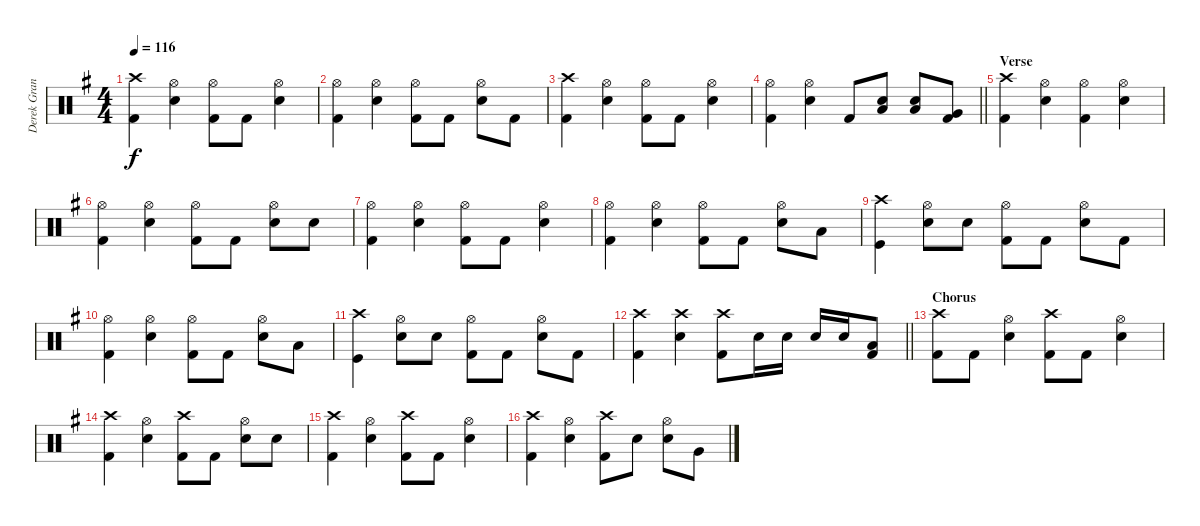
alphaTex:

\track ("Derek Grant - Drums" "Derek Gran") {instrument percussion}
\staff {score}
\articulation defaults
\ts (4 4)
\tempo 116
\clef neutral
\ks g
("Crash high (hit)" "Kick (hit) 2").4{dy f} ("Hi-Hat (open)" "Snare (hit) 2").4 ("Hi-Hat (open)" "Kick (hit) 2").8 "Kick (hit) 2".8 ("Hi-Hat (open)" "Snare (hit) 2").4 |
("Hi-Hat (open)" "Kick (hit) 2").4 ("Hi-Hat (open)" "Snare (hit) 2").4 ("Hi-Hat (open)" "Kick (hit) 2").8 "Kick (hit) 2".8 ("Hi-Hat (open)" "Snare (hit) 2").8 "Kick (hit) 2".8 |
("Crash high (hit)" "Kick (hit) 2").4 ("Hi-Hat (open)" "Snare (hit) 2").4 ("Hi-Hat (open)" "Kick (hit) 2").8 "Kick (hit) 2".8 ("Hi-Hat (open)" "Snare (hit) 2").4 |
\barLineRight lightlight
("Hi-Hat (open)" "Kick (hit) 2").4 ("Hi-Hat (open)" "Snare (hit) 2").4 "Kick (hit) 2".8 ("Low Tom (hit)" "Snare (hit) 2").8 ("Low Tom (hit)" "Snare (hit) 2").8 ("Kick (hit) 2" "Very Low Tom (hit)").8 |
\section ("" "Verse")
("Crash high (hit)" "Kick (hit) 2").4 ("Hi-Hat (open)" "Snare (hit) 2").4 ("Hi-Hat (open)" "Kick (hit) 2").4 ("Hi-Hat (open)" "Snare (hit) 2").4 |
("Hi-Hat (open)" "Kick (hit) 2").4 ("Hi-Hat (open)" "Snare (hit) 2").4 ("Hi-Hat (open)" "Kick (hit) 2").8 "Kick (hit) 2".8 ("Hi-Hat (open)" "Snare (hit) 2").8 "Snare (hit) 2".8 |
("Hi-Hat (open)" "Kick (hit) 2").4 ("Hi-Hat (open)" "Snare (hit) 2").4 ("Hi-Hat (open)" "Kick (hit) 2").8 "Kick (hit) 2".8 ("Hi-Hat (open)" "Snare (hit) 2").4 |
("Hi-Hat (open)" "Kick (hit) 2").4 ("Hi-Hat (open)" "Snare (hit) 2").4 ("Hi-Hat (open)" "Kick (hit) 2").8 "Kick (hit) 2".8 ("Hi-Hat (open)" "Snare (hit) 2").8 "Low Tom (hit)".8 |
("Kick (hit)" "Crash high (hit)").4 ("Snare (hit) 2" "Hi-Hat (open)").8 "Snare (hit) 2".8 ("Hi-Hat (open)" "Kick (hit) 2").8 "Kick (hit) 2".8 ("Snare (hit) 2" "Hi-Hat (open)").8 "Kick (hit) 2".8 |
("Kick (hit) 2" "Hi-Hat (open)").4 ("Hi-Hat (open)" "Snare (hit) 2").4 ("Kick (hit) 2" "Hi-Hat (open)").8 "Kick (hit) 2".8 ("Snare (hit) 2" "Hi-Hat (open)").8 "Low Tom (hit)".8 |
("Kick (hit)" "Crash high (hit)").4 ("Snare (hit) 2" "Hi-Hat (open)").8 "Snare (hit) 2".8 ("Hi-Hat (open)" "Kick (hit) 2").8 "Kick (hit) 2".8 ("Snare (hit) 2" "Hi-Hat (open)").8 "Kick (hit) 2".8 |
\barLineRight lightlight
("Kick (hit) 2" "Crash high (hit)").4 ("Crash high (hit)" "Snare (hit) 2").4 ("Kick (hit) 2" "Crash high (hit)").8 "Snare (hit) 2".16 "Snare (hit) 2".16 "Snare (hit) 2".16 "Snare (hit) 2".16 ("Low Floor Tom (hit)" "Kick (hit) 2").8 |
\section ("" "Chorus")
("Kick (hit) 2" "Crash high (hit)").8 "Kick (hit) 2".8 ("Snare (hit) 2" "Hi-Hat (open)").4 ("Kick (hit) 2" "Crash high (hit)").8 "Kick (hit) 2".8 ("Snare (hit) 2" "Hi-Hat (open)").4 |
("Kick (hit) 2" "Crash high (hit)").4 ("Snare (hit) 2" "Hi-Hat (open)").4 ("Kick (hit) 2" "Crash high (hit)").8 "Kick (hit) 2".8 ("Snare (hit) 2" "Hi-Hat (open)").8 "Snare (hit) 2".8 |
("Kick (hit) 2" "Crash high (hit)").4 ("Snare (hit) 2" "Hi-Hat (open)").4 ("Kick (hit) 2" "Crash high (hit)").8 "Kick (hit) 2".8 ("Snare (hit) 2" "Hi-Hat (open)").4 |
("Kick (hit) 2" "Crash high (hit)").4 ("Snare (hit) 2" "Hi-Hat (open)").4 ("Kick (hit) 2" "Crash high (hit)").8 "Snare (hit) 2".8 ("Snare (hit) 2" "Hi-Hat (open)").8 "Very Low Tom (hit)".8
